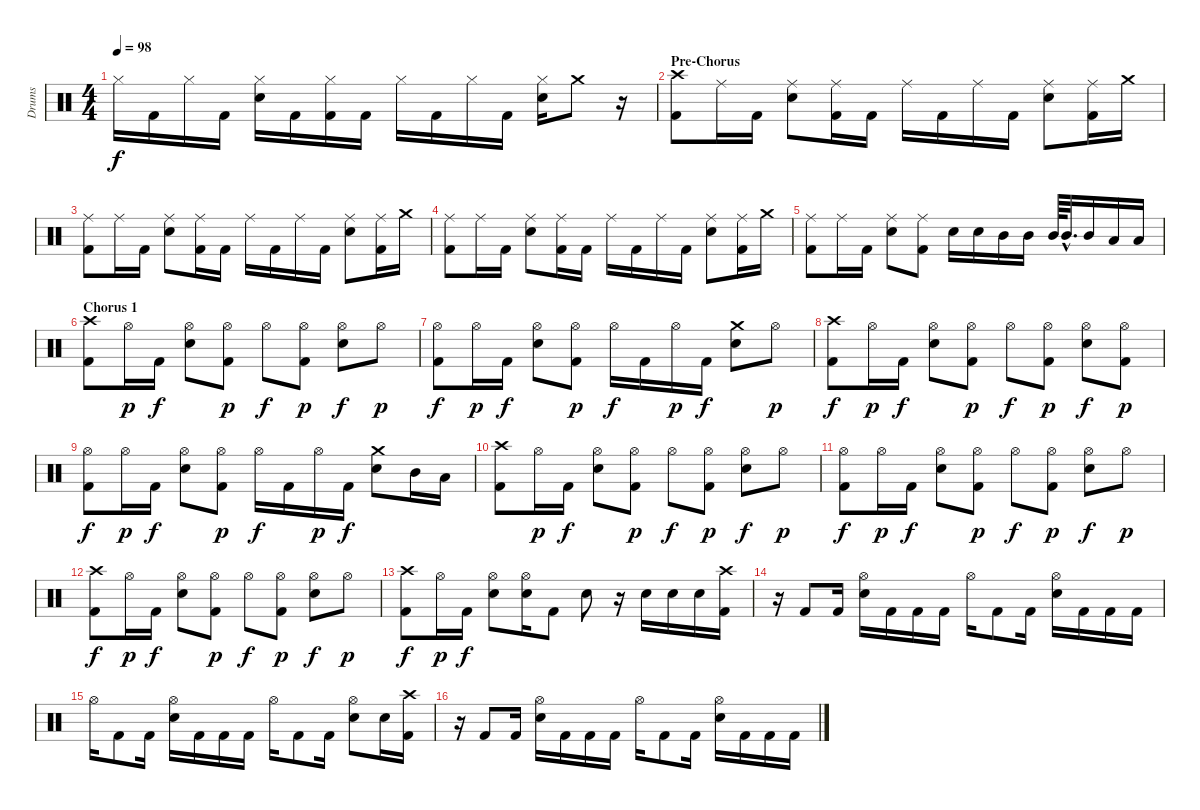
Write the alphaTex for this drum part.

\track ("Drums" "Drums") {instrument percussion}
\staff {score}
\articulation defaults
\ts (4 4)
\tempo 98
\clef neutral
\ks c "Hi-Hat (closed)".16{dy f} "Kick (hit) 2".16 "Hi-Hat (closed)".16 "Kick (hit) 2".16
("Hi-Hat (closed)" "Electric Snare (hit)").16 "Kick (hit) 2".16 ("Hi-Hat (closed)" "Kick (hit) 2").16 "Kick (hit) 2".16 "Hi-Hat (closed)".16 "Kick (hit) 2".16 "Hi-Hat (closed)".16 "Kick (hit) 2".16 ("Hi-Hat (closed)" "Electric Snare (hit)").16 "Crash medium (hit)".8 r.16 |
\section ("" "Pre-Chorus")
("Crash high (hit)" "Kick (hit) 2").8 "Ride (middle)".16 "Kick (hit) 2".16 ("Ride (middle)" "Electric Snare (hit)").8 ("Ride (middle)" "Kick (hit) 2").16 "Kick (hit) 2".16 "Ride (middle)".16 "Kick (hit) 2".16 "Ride (middle)".16 "Kick (hit) 2".16 ("Ride (middle)" "Electric Snare (hit)").8 ("Ride (middle)" "Kick (hit) 2").16 "Crash medium (hit)".16 |
("Ride (middle)" "Kick (hit) 2").8 "Ride (middle)".16 "Kick (hit) 2".16 ("Ride (middle)" "Electric Snare (hit)").8 ("Ride (middle)" "Kick (hit) 2").16 "Kick (hit) 2".16 "Ride (middle)".16 "Kick (hit) 2".16 "Ride (middle)".16 "Kick (hit) 2".16 ("Ride (middle)" "Electric Snare (hit)").8 ("Ride (middle)" "Kick (hit) 2").16 "Crash medium (hit)".16 |
("Ride (middle)" "Kick (hit) 2").8 "Ride (middle)".16 "Kick (hit) 2".16 ("Ride (middle)" "Electric Snare (hit)").8 ("Ride (middle)" "Kick (hit) 2").16 "Kick (hit) 2".16 "Ride (middle)".16 "Kick (hit) 2".16 "Ride (middle)".16 "Kick (hit) 2".16 ("Ride (middle)" "Electric Snare (hit)").8 ("Ride (middle)" "Kick (hit) 2").16 "Crash medium (hit)".16 |
("Ride (middle)" "Kick (hit) 2").8 "Ride (middle)".16 "Kick (hit) 2".16 ("Ride (middle)" "Electric Snare (hit)").8 ("Ride (middle)" "Kick (hit) 2").8 "Electric Snare (hit)".16 "Electric Snare (hit)".16 "Mid Tom (hit)".16 "Mid Tom (hit)".16 "Mid Tom (hit)".64 "Mid Tom (hit)"{hac}.32{d} "Mid Tom (hit)".16 "Low Tom (hit)".16 "Low Tom (hit)".16 |
\section ("" "Chorus 1")
("Crash high (hit)" "Kick (hit) 2").8 "Hi-Hat (open)".16{dy p} "Kick (hit) 2".16{dy f} ("Hi-Hat (open)" "Electric Snare (hit)").8 ("Hi-Hat (open)" "Kick (hit) 2").8{dy p} "Hi-Hat (open)".8{dy f} ("Hi-Hat (open)" "Kick (hit) 2").8{dy p} ("Hi-Hat (open)" "Electric Snare (hit)").8{dy f} "Hi-Hat (open)".8{dy p} |
("Hi-Hat (open)" "Kick (hit) 2").8{dy f} "Hi-Hat (open)".16{dy p} "Kick (hit) 2".16{dy f} ("Hi-Hat (open)" "Electric Snare (hit)").8 ("Hi-Hat (open)" "Kick (hit) 2").8{dy p} "Hi-Hat (open)".16{dy f} "Kick (hit) 2".16 "Hi-Hat (open)".16{dy p} "Kick (hit) 2".16{dy f} ("Crash medium (hit)" "Electric Snare (hit)").8 "Hi-Hat (open)".8{dy p} |
("Crash high (hit)" "Kick (hit) 2").8{dy f} "Hi-Hat (open)".16{dy p} "Kick (hit) 2".16{dy f} ("Hi-Hat (open)" "Electric Snare (hit)").8 ("Hi-Hat (open)" "Kick (hit) 2").8{dy p} "Hi-Hat (open)".8{dy f} ("Hi-Hat (open)" "Kick (hit) 2").8{dy p} ("Hi-Hat (open)" "Electric Snare (hit)").8{dy f} ("Hi-Hat (open)" "Kick (hit) 2").8{dy p} |
("Hi-Hat (open)" "Kick (hit) 2").8{dy f} "Hi-Hat (open)".16{dy p} "Kick (hit) 2".16{dy f} ("Hi-Hat (open)" "Electric Snare (hit)").8 ("Hi-Hat (open)" "Kick (hit) 2").8{dy p} "Hi-Hat (open)".16{dy f} "Kick (hit) 2".16 "Hi-Hat (open)".16{dy p} "Kick (hit) 2".16{dy f} ("Crash medium (hit)" "Electric Snare (hit)").8 "Mid Tom (hit)".16 "Low Tom (hit)".16 |
("Crash high (hit)" "Kick (hit) 2").8 "Hi-Hat (open)".16{dy p} "Kick (hit) 2".16{dy f} ("Hi-Hat (open)" "Electric Snare (hit)").8 ("Hi-Hat (open)" "Kick (hit) 2").8{dy p} "Hi-Hat (open)".8{dy f} ("Hi-Hat (open)" "Kick (hit) 2").8{dy p} ("Hi-Hat (open)" "Electric Snare (hit)").8{dy f} "Hi-Hat (open)".8{dy p} |
("Hi-Hat (open)" "Kick (hit) 2").8{dy f} "Hi-Hat (open)".16{dy p} "Kick (hit) 2".16{dy f} ("Hi-Hat (open)" "Electric Snare (hit)").8 ("Hi-Hat (open)" "Kick (hit) 2").8{dy p} "Hi-Hat (open)".8{dy f} ("Hi-Hat (open)" "Kick (hit) 2").8{dy p} ("Hi-Hat (open)" "Electric Snare (hit)").8{dy f} "Hi-Hat (open)".8{dy p} |
("Crash high (hit)" "Kick (hit) 2").8{dy f} "Hi-Hat (open)".16{dy p} "Kick (hit) 2".16{dy f} ("Hi-Hat (open)" "Electric Snare (hit)").8 ("Hi-Hat (open)" "Kick (hit) 2").8{dy p} "Hi-Hat (open)".8{dy f} ("Hi-Hat (open)" "Kick (hit) 2").8{dy p} ("Hi-Hat (open)" "Electric Snare (hit)").8{dy f} "Hi-Hat (open)".8{dy p} |
("Crash high (hit)" "Kick (hit) 2").8{dy f} "Hi-Hat (open)".16{dy p} "Kick (hit) 2".16{dy f} ("Hi-Hat (open)" "Electric Snare (hit)").8 ("Hi-Hat (open)" "Electric Snare (hit)").16 "Kick (hit) 2".8 "Electric Snare (hit)".8 r.16 "Electric Snare (hit)".16 "Electric Snare (hit)".16 "Electric Snare (hit)".16 ("Crash high (hit)" "Kick (hit) 2").16 |
r.16 "Kick (hit) 2".8 "Kick (hit) 2".16 ("Hi-Hat (open)" "Electric Snare (hit)").16 "Kick (hit) 2".16 "Kick (hit) 2".16 "Kick (hit) 2".16 "Hi-Hat (open)".16 "Kick (hit) 2".8 "Kick (hit) 2".16 ("Hi-Hat (open)" "Electric Snare (hit)").16 "Kick (hit) 2".16 "Kick (hit) 2".16 "Kick (hit) 2".16 |
"Hi-Hat (open)".16 "Kick (hit) 2".8 "Kick (hit) 2".16 ("Hi-Hat (open)" "Electric Snare (hit)").16 "Kick (hit) 2".16 "Kick (hit) 2".16 "Kick (hit) 2".16 "Hi-Hat (open)".16 "Kick (hit) 2".8 "Kick (hit) 2".16 ("Hi-Hat (open)" "Electric Snare (hit)").8 "Electric Snare (hit)".16 ("Crash high (hit)" "Kick (hit) 2").16 |
r.16 "Kick (hit) 2".8 "Kick (hit) 2".16 ("Hi-Hat (open)" "Electric Snare (hit)").16 "Kick (hit) 2".16 "Kick (hit) 2".16 "Kick (hit) 2".16 "Hi-Hat (open)".16 "Kick (hit) 2".8 "Kick (hit) 2".16 ("Hi-Hat (open)" "Electric Snare (hit)").16 "Kick (hit) 2".16 "Kick (hit) 2".16 "Kick (hit) 2".16
